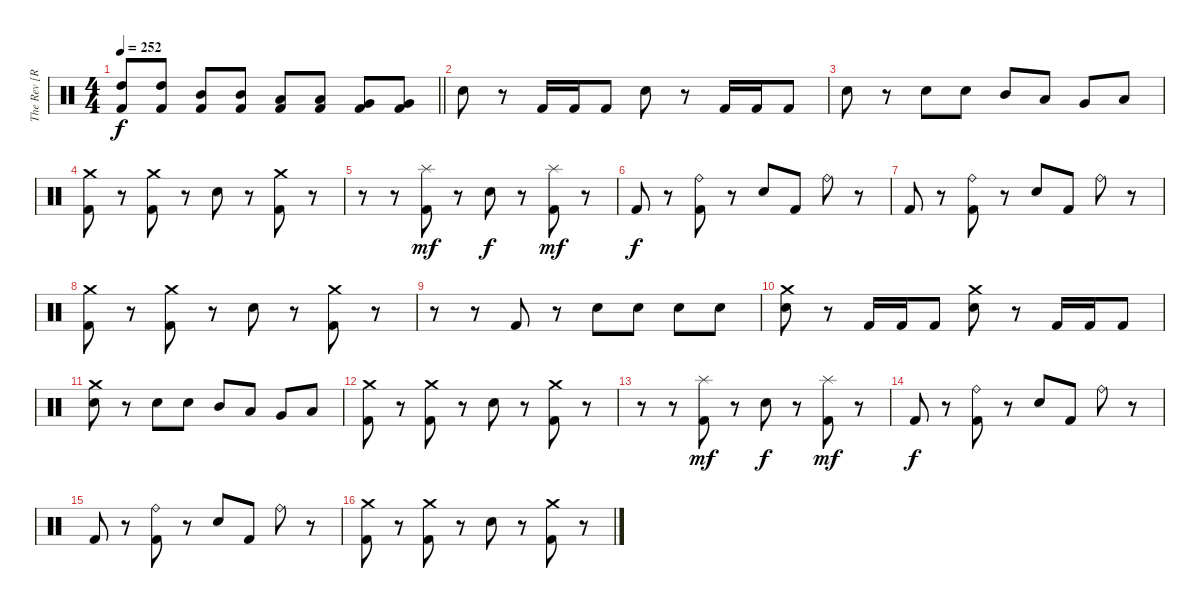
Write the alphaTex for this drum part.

\track ("The Rev [R.I.P]" "The Rev [R") {instrument percussion}
\staff {score}
\articulation defaults
\ts (4 4)
\tempo 252
\clef neutral
\barLineRight lightlight
\ks c
("High Tom (hit)" "Kick (hit) 2").8{dy f} ("High Tom (hit)" "Kick (hit) 2").8 ("Mid Tom (hit)" "Kick (hit) 2").8 ("Mid Tom (hit)" "Kick (hit) 2").8 ("Low Tom (hit)" "Kick (hit) 2").8 ("Low Tom (hit)" "Kick (hit) 2").8 ("Very Low Tom (hit)" "Kick (hit) 2").8 ("Very Low Tom (hit)" "Kick (hit) 2").8 |
"Electric Snare (hit)".8 r.8 "Kick (hit) 2".16 "Kick (hit) 2".16 "Kick (hit) 2".8 "Electric Snare (hit)".8 r.8 "Kick (hit) 2".16 "Kick (hit) 2".16 "Kick (hit) 2".8 |
"Electric Snare (hit)".8 r.8 "Electric Snare (hit)".8 "Electric Snare (hit)".8 "Mid Tom (hit)".8 "Low Tom (hit)".8 "Very Low Tom (hit)".8 "Low Floor Tom (hit)".8 |
("Crash medium (hit)" "Kick (hit) 2").8 r.8 ("Crash medium (hit)" "Kick (hit) 2").8 r.8 "Electric Snare (hit)".8 r.8 ("Crash medium (hit)" "Kick (hit) 2").8 r.8 |
r.8 r.8 ("Splash (hit)" "Kick (hit) 2").8{dy mf} r.8 "Electric Snare (hit)".8{dy f} r.8 ("Splash (hit)" "Kick (hit) 2").8{dy mf} r.8 |
"Kick (hit) 2".8{dy f} r.8 ("Ride (bell)" "Kick (hit) 2").8 r.8 "Electric Snare (hit)".8 "Kick (hit) 2".8 "Ride (bell)".8 r.8 |
"Kick (hit) 2".8 r.8 ("Ride (bell)" "Kick (hit) 2").8 r.8 "Electric Snare (hit)".8 "Kick (hit) 2".8 "Ride (bell)".8 r.8 |
("Crash medium (hit)" "Kick (hit) 2").8 r.8 ("Crash medium (hit)" "Kick (hit) 2").8 r.8 "Electric Snare (hit)".8 r.8 ("Crash medium (hit)" "Kick (hit) 2").8 r.8 |
r.8 r.8 "Kick (hit) 2".8 r.8 "Electric Snare (hit)".8 "Electric Snare (hit)".8 "Electric Snare (hit)".8 "Electric Snare (hit)".8 |
("Crash medium (hit)" "Electric Snare (hit)").8 r.8 "Kick (hit) 2".16 "Kick (hit) 2".16 "Kick (hit) 2".8 ("Crash medium (hit)" "Electric Snare (hit)").8 r.8 "Kick (hit) 2".16 "Kick (hit) 2".16 "Kick (hit) 2".8 |
("Crash medium (hit)" "Electric Snare (hit)").8 r.8 "Electric Snare (hit)".8 "Electric Snare (hit)".8 "Mid Tom (hit)".8 "Low Tom (hit)".8 "Very Low Tom (hit)".8 "Low Floor Tom (hit)".8 |
("Crash medium (hit)" "Kick (hit) 2").8 r.8 ("Crash medium (hit)" "Kick (hit) 2").8 r.8 "Electric Snare (hit)".8 r.8 ("Crash medium (hit)" "Kick (hit) 2").8 r.8 |
r.8 r.8 ("Splash (hit)" "Kick (hit) 2").8{dy mf} r.8 "Electric Snare (hit)".8{dy f} r.8 ("Splash (hit)" "Kick (hit) 2").8{dy mf} r.8 |
"Kick (hit) 2".8{dy f} r.8 ("Ride (bell)" "Kick (hit) 2").8 r.8 "Electric Snare (hit)".8 "Kick (hit) 2".8 "Ride (bell)".8 r.8 |
"Kick (hit) 2".8 r.8 ("Ride (bell)" "Kick (hit) 2").8 r.8 "Electric Snare (hit)".8 "Kick (hit) 2".8 "Ride (bell)".8 r.8 |
("Crash medium (hit)" "Kick (hit) 2").8 r.8 ("Crash medium (hit)" "Kick (hit) 2").8 r.8 "Electric Snare (hit)".8 r.8 ("Crash medium (hit)" "Kick (hit) 2").8 r.8
